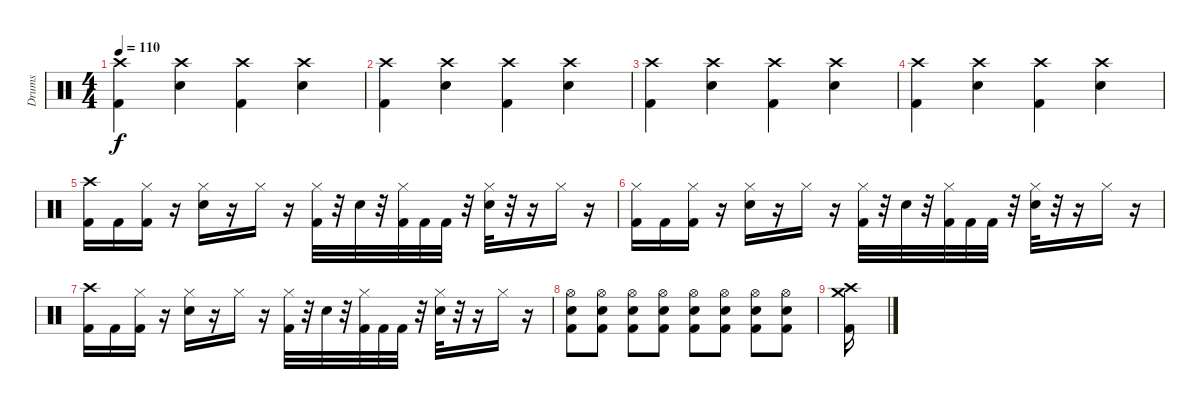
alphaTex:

\track ("Drums" "Drums") {instrument percussion}
\staff {score}
\articulation defaults
\ts (4 4)
\tempo 110
\clef neutral
\ks c
("Crash high (hit)" "Kick (hit) 2").4{dy f} ("Crash high (hit)" "Snare (hit) 2").4 ("Crash high (hit)" "Kick (hit) 2").4 ("Crash high (hit)" "Snare (hit) 2").4 |
("Crash high (hit)" "Kick (hit) 2").4 ("Crash high (hit)" "Snare (hit) 2").4 ("Crash high (hit)" "Kick (hit) 2").4 ("Crash high (hit)" "Snare (hit) 2").4 |
("Crash high (hit)" "Kick (hit) 2").4 ("Crash high (hit)" "Snare (hit) 2").4 ("Crash high (hit)" "Kick (hit) 2").4 ("Crash high (hit)" "Snare (hit) 2").4 |
("Crash high (hit)" "Kick (hit) 2").4 ("Crash high (hit)" "Snare (hit) 2").4 ("Crash high (hit)" "Kick (hit) 2").4 ("Crash high (hit)" "Snare (hit) 2").4 |
("Crash high (hit)" "Kick (hit) 2").16 "Kick (hit) 2".16 ("Hi-Hat (closed)" "Kick (hit) 2").16 r.16 ("Hi-Hat (closed)" "Snare (hit) 2").16 r.16 "Hi-Hat (closed)".16 r.16 ("Hi-Hat (closed)" "Kick (hit) 2").32 r.32 "Snare (hit) 2".32 r.32 ("Hi-Hat (closed)" "Kick (hit) 2").32 "Kick (hit) 2".32 "Kick (hit) 2".32 r.32 ("Hi-Hat (closed)" "Snare (hit) 2").32 r.32 r.16 "Hi-Hat (closed)".16 r.16 |
("Hi-Hat (closed)" "Kick (hit) 2").16 "Kick (hit) 2".16 ("Hi-Hat (closed)" "Kick (hit) 2").16 r.16 ("Hi-Hat (closed)" "Snare (hit) 2").16 r.16 "Hi-Hat (closed)".16 r.16 ("Hi-Hat (closed)" "Kick (hit) 2").32 r.32 "Snare (hit) 2".32 r.32 ("Hi-Hat (closed)" "Kick (hit) 2").32 "Kick (hit) 2".32 "Kick (hit) 2".32 r.32 ("Hi-Hat (closed)" "Snare (hit) 2").32 r.32 r.16 "Hi-Hat (closed)".16 r.16 |
("Crash high (hit)" "Kick (hit) 2").16 "Kick (hit) 2".16 ("Hi-Hat (closed)" "Kick (hit) 2").16 r.16 ("Hi-Hat (closed)" "Snare (hit) 2").16 r.16 "Hi-Hat (closed)".16 r.16 ("Hi-Hat (closed)" "Kick (hit) 2").32 r.32 "Snare (hit) 2".32 r.32 ("Hi-Hat (closed)" "Kick (hit) 2").32 "Kick (hit) 2".32 "Kick (hit) 2".32 r.32 ("Hi-Hat (closed)" "Snare (hit) 2").32 r.32 r.16 "Hi-Hat (closed)".16 r.16 |
("Hi-Hat (open)" "Snare (hit) 2" "Kick (hit) 2").8 ("Hi-Hat (open)" "Snare (hit) 2" "Kick (hit) 2").8 ("Hi-Hat (open)" "Snare (hit) 2" "Kick (hit) 2").8 ("Hi-Hat (open)" "Snare (hit) 2" "Kick (hit) 2").8 ("Hi-Hat (open)" "Snare (hit) 2" "Kick (hit) 2").8 ("Hi-Hat (open)" "Snare (hit) 2" "Kick (hit) 2").8 ("Hi-Hat (open)" "Snare (hit) 2" "Kick (hit) 2").8 ("Hi-Hat (open)" "Snare (hit) 2" "Kick (hit) 2").8 |
("Crash high (hit)" "Crash medium (hit)" "Kick (hit) 2").16
